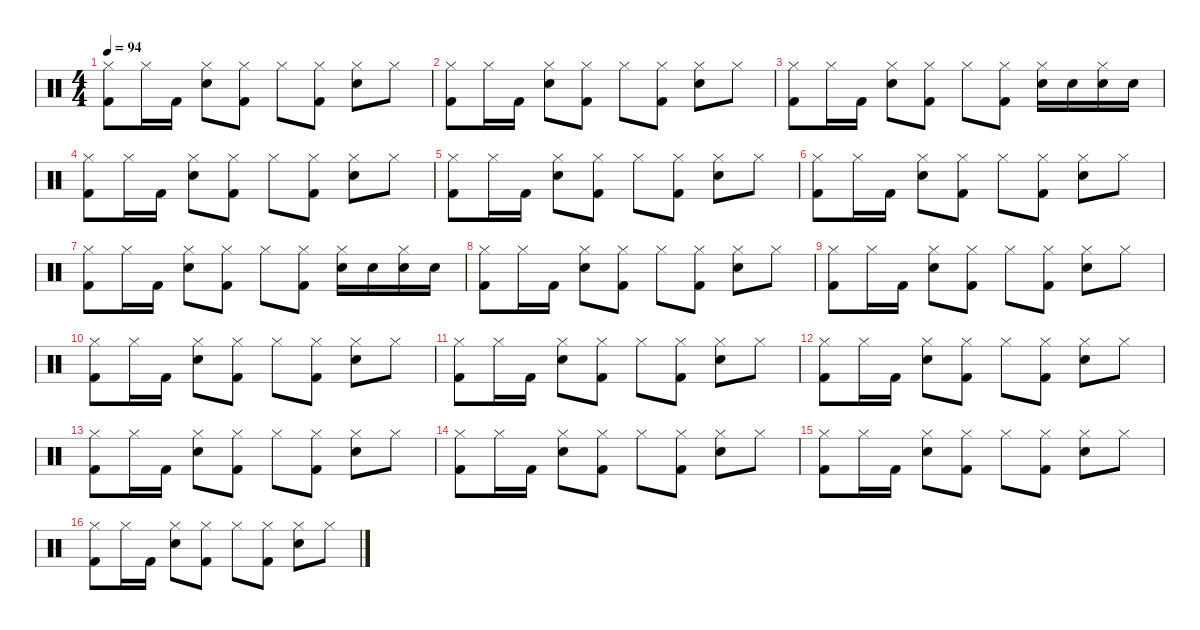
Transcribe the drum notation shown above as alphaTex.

\defaultSystemsLayout 4
\hideDynamics
\bracketExtendMode nobrackets
\singleTrackTrackNamePolicy hidden
\multiTrackTrackNamePolicy hidden
\otherSystemsTrackNameOrientation horizontal
\track ("Mike Joyce" "drm.") {instrument percussion}
\staff {score}
\articulation defaults
\ts (4 4)
\tempo 94
\clef neutral
\ks c
("Hi-Hat (closed)" "Kick (hit) 2").8{dy f} "Hi-Hat (closed)".16 "Kick (hit) 2".16 ("Hi-Hat (closed)" "Snare (hit) 2").8 ("Hi-Hat (closed)" "Kick (hit) 2").8 "Hi-Hat (closed)".8 ("Hi-Hat (closed)" "Kick (hit) 2").8 ("Hi-Hat (closed)" "Snare (hit) 2").8 "Hi-Hat (closed)".8 |
("Hi-Hat (closed)" "Kick (hit) 2").8 "Hi-Hat (closed)".16 "Kick (hit) 2".16 ("Hi-Hat (closed)" "Snare (hit) 2").8 ("Hi-Hat (closed)" "Kick (hit) 2").8 "Hi-Hat (closed)".8 ("Hi-Hat (closed)" "Kick (hit) 2").8 ("Hi-Hat (closed)" "Snare (hit) 2").8 "Hi-Hat (closed)".8 |
("Hi-Hat (closed)" "Kick (hit) 2").8 "Hi-Hat (closed)".16 "Kick (hit) 2".16 ("Hi-Hat (closed)" "Snare (hit) 2").8 ("Hi-Hat (closed)" "Kick (hit) 2").8 "Hi-Hat (closed)".8 ("Hi-Hat (closed)" "Kick (hit) 2").8 ("Hi-Hat (closed)" "Snare (hit) 2").16 "Snare (hit) 2".16 ("Hi-Hat (closed)" "Snare (hit) 2").16 "Snare (hit) 2".16 |
("Hi-Hat (closed)" "Kick (hit) 2").8 "Hi-Hat (closed)".16 "Kick (hit) 2".16 ("Hi-Hat (closed)" "Snare (hit) 2").8 ("Hi-Hat (closed)" "Kick (hit) 2").8 "Hi-Hat (closed)".8 ("Hi-Hat (closed)" "Kick (hit) 2").8 ("Hi-Hat (closed)" "Snare (hit) 2").8 "Hi-Hat (closed)".8 |
("Hi-Hat (closed)" "Kick (hit) 2").8 "Hi-Hat (closed)".16 "Kick (hit) 2".16 ("Hi-Hat (closed)" "Snare (hit) 2").8 ("Hi-Hat (closed)" "Kick (hit) 2").8 "Hi-Hat (closed)".8 ("Hi-Hat (closed)" "Kick (hit) 2").8 ("Hi-Hat (closed)" "Snare (hit) 2").8 "Hi-Hat (closed)".8 |
("Hi-Hat (closed)" "Kick (hit) 2").8 "Hi-Hat (closed)".16 "Kick (hit) 2".16 ("Hi-Hat (closed)" "Snare (hit) 2").8 ("Hi-Hat (closed)" "Kick (hit) 2").8 "Hi-Hat (closed)".8 ("Hi-Hat (closed)" "Kick (hit) 2").8 ("Hi-Hat (closed)" "Snare (hit) 2").8 "Hi-Hat (closed)".8 |
("Hi-Hat (closed)" "Kick (hit) 2").8 "Hi-Hat (closed)".16 "Kick (hit) 2".16 ("Hi-Hat (closed)" "Snare (hit) 2").8 ("Hi-Hat (closed)" "Kick (hit) 2").8 "Hi-Hat (closed)".8 ("Hi-Hat (closed)" "Kick (hit) 2").8 ("Hi-Hat (closed)" "Snare (hit) 2").16 "Snare (hit) 2".16 ("Hi-Hat (closed)" "Snare (hit) 2").16 "Snare (hit) 2".16 |
("Hi-Hat (closed)" "Kick (hit) 2").8 "Hi-Hat (closed)".16 "Kick (hit) 2".16 ("Hi-Hat (closed)" "Snare (hit) 2").8 ("Hi-Hat (closed)" "Kick (hit) 2").8 "Hi-Hat (closed)".8 ("Hi-Hat (closed)" "Kick (hit) 2").8 ("Hi-Hat (closed)" "Snare (hit) 2").8 "Hi-Hat (closed)".8 |
("Hi-Hat (closed)" "Kick (hit) 2").8 "Hi-Hat (closed)".16 "Kick (hit) 2".16 ("Hi-Hat (closed)" "Snare (hit) 2").8 ("Hi-Hat (closed)" "Kick (hit) 2").8 "Hi-Hat (closed)".8 ("Hi-Hat (closed)" "Kick (hit) 2").8 ("Hi-Hat (closed)" "Snare (hit) 2").8 "Hi-Hat (closed)".8 |
("Hi-Hat (closed)" "Kick (hit) 2").8 "Hi-Hat (closed)".16 "Kick (hit) 2".16 ("Hi-Hat (closed)" "Snare (hit) 2").8 ("Hi-Hat (closed)" "Kick (hit) 2").8 "Hi-Hat (closed)".8 ("Hi-Hat (closed)" "Kick (hit) 2").8 ("Hi-Hat (closed)" "Snare (hit) 2").8 "Hi-Hat (closed)".8 |
("Hi-Hat (closed)" "Kick (hit) 2").8 "Hi-Hat (closed)".16 "Kick (hit) 2".16 ("Hi-Hat (closed)" "Snare (hit) 2").8 ("Hi-Hat (closed)" "Kick (hit) 2").8 "Hi-Hat (closed)".8 ("Hi-Hat (closed)" "Kick (hit) 2").8 ("Hi-Hat (closed)" "Snare (hit) 2").8 "Hi-Hat (closed)".8 |
("Hi-Hat (closed)" "Kick (hit) 2").8 "Hi-Hat (closed)".16 "Kick (hit) 2".16 ("Hi-Hat (closed)" "Snare (hit) 2").8 ("Hi-Hat (closed)" "Kick (hit) 2").8 "Hi-Hat (closed)".8 ("Hi-Hat (closed)" "Kick (hit) 2").8 ("Hi-Hat (closed)" "Snare (hit) 2").8 "Hi-Hat (closed)".8 |
("Hi-Hat (closed)" "Kick (hit) 2").8 "Hi-Hat (closed)".16 "Kick (hit) 2".16 ("Hi-Hat (closed)" "Snare (hit) 2").8 ("Hi-Hat (closed)" "Kick (hit) 2").8 "Hi-Hat (closed)".8 ("Hi-Hat (closed)" "Kick (hit) 2").8 ("Hi-Hat (closed)" "Snare (hit) 2").8 "Hi-Hat (closed)".8 |
("Hi-Hat (closed)" "Kick (hit) 2").8 "Hi-Hat (closed)".16 "Kick (hit) 2".16 ("Hi-Hat (closed)" "Snare (hit) 2").8 ("Hi-Hat (closed)" "Kick (hit) 2").8 "Hi-Hat (closed)".8 ("Hi-Hat (closed)" "Kick (hit) 2").8 ("Hi-Hat (closed)" "Snare (hit) 2").8 "Hi-Hat (closed)".8 |
("Hi-Hat (closed)" "Kick (hit) 2").8 "Hi-Hat (closed)".16 "Kick (hit) 2".16 ("Hi-Hat (closed)" "Snare (hit) 2").8 ("Hi-Hat (closed)" "Kick (hit) 2").8 "Hi-Hat (closed)".8 ("Hi-Hat (closed)" "Kick (hit) 2").8 ("Hi-Hat (closed)" "Snare (hit) 2").8 "Hi-Hat (closed)".8 |
("Hi-Hat (closed)" "Kick (hit) 2").8 "Hi-Hat (closed)".16 "Kick (hit) 2".16 ("Hi-Hat (closed)" "Snare (hit) 2").8 ("Hi-Hat (closed)" "Kick (hit) 2").8 "Hi-Hat (closed)".8 ("Hi-Hat (closed)" "Kick (hit) 2").8 ("Hi-Hat (closed)" "Snare (hit) 2").8 "Hi-Hat (closed)".8
